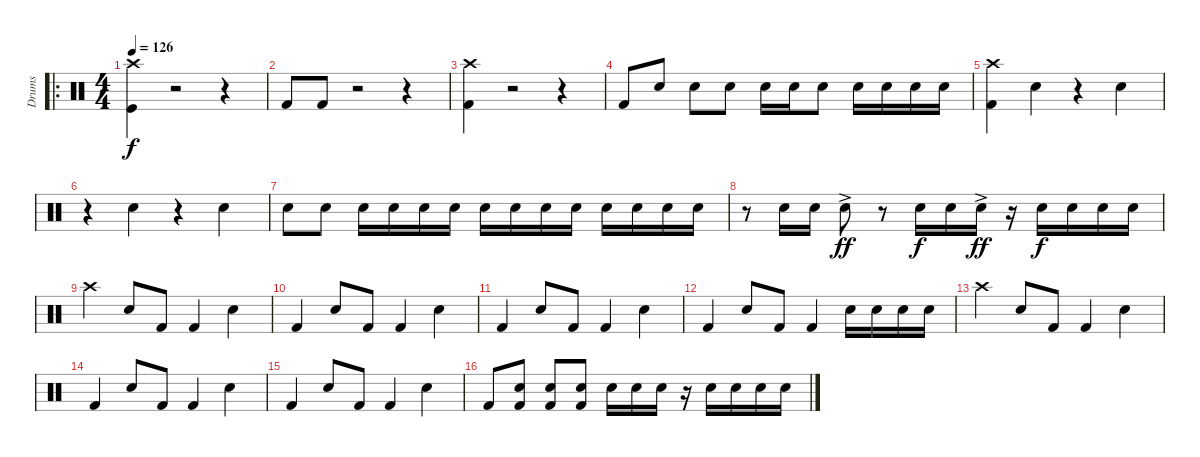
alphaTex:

\track ("Drums" "Drums") {instrument percussion}
\staff {score}
\articulation defaults
\ro
\ts (4 4)
\tempo 126
\clef neutral
\ks c
("Kick (hit)" "Crash high (hit)").4{dy f} r.2 r.4 |
"Kick (hit) 2".8 "Kick (hit) 2".8 r.2 r.4 |
("Kick (hit) 2" "Crash high (hit)").4 r.2 r.4 |
"Kick (hit) 2".8 "Snare (hit) 2".8 "Snare (hit) 2".8 "Snare (hit) 2".8 "Snare (hit) 2".16 "Snare (hit) 2".16 "Snare (hit) 2".8 "Snare (hit) 2".16 "Snare (hit) 2".16 "Snare (hit) 2".16 "Snare (hit) 2".16 |
("Crash high (hit)" "Kick (hit) 2").4 "Snare (hit) 2".4 r.4 "Snare (hit) 2".4 |
r.4 "Snare (hit) 2".4 r.4 "Snare (hit) 2".4 |
"Snare (hit) 2".8 "Snare (hit) 2".8 "Snare (hit) 2".16 "Snare (hit) 2".16 "Snare (hit) 2".16 "Snare (hit) 2".16 "Snare (hit) 2".16 "Snare (hit) 2".16 "Snare (hit) 2".16 "Snare (hit) 2".16 "Snare (hit) 2".16 "Snare (hit) 2".16 "Snare (hit) 2".16 "Snare (hit) 2".16 |
r.8 "Snare (hit) 2".16 "Snare (hit) 2".16 "Snare (hit) 2"{ac}.8{dy ff} r.8 "Snare (hit) 2".16{dy f} "Snare (hit) 2".16 "Snare (hit) 2"{ac}.16{dy ff} r.16 "Snare (hit) 2".16{dy f} "Snare (hit) 2".16 "Snare (hit) 2".16 "Snare (hit) 2".16 |
"Crash high (hit)".4 "Snare (hit) 2".8 "Kick (hit) 2".8 "Kick (hit) 2".4 "Snare (hit) 2".4 |
"Kick (hit) 2".4 "Snare (hit) 2".8 "Kick (hit) 2".8 "Kick (hit) 2".4 "Snare (hit) 2".4 |
"Kick (hit) 2".4 "Snare (hit) 2".8 "Kick (hit) 2".8 "Kick (hit) 2".4 "Snare (hit) 2".4 |
"Kick (hit) 2".4 "Snare (hit) 2".8 "Kick (hit) 2".8 "Kick (hit) 2".4 "Snare (hit) 2".16 "Snare (hit) 2".16 "Snare (hit) 2".16 "Snare (hit) 2".16 |
"Crash high (hit)".4 "Snare (hit) 2".8 "Kick (hit) 2".8 "Kick (hit) 2".4 "Snare (hit) 2".4 |
"Kick (hit) 2".4 "Snare (hit) 2".8 "Kick (hit) 2".8 "Kick (hit) 2".4 "Snare (hit) 2".4 |
"Kick (hit) 2".4 "Snare (hit) 2".8 "Kick (hit) 2".8 "Kick (hit) 2".4 "Snare (hit) 2".4 |
"Kick (hit) 2".8 ("Snare (hit) 2" "Kick (hit) 2").8 ("Kick (hit) 2" "Snare (hit) 2").8 ("Kick (hit) 2" "Snare (hit) 2").8 "Snare (hit) 2".16 "Snare (hit) 2".16 "Snare (hit) 2".16 r.16 "Snare (hit) 2".16 "Snare (hit) 2".16 "Snare (hit) 2".16 "Snare (hit) 2".16
